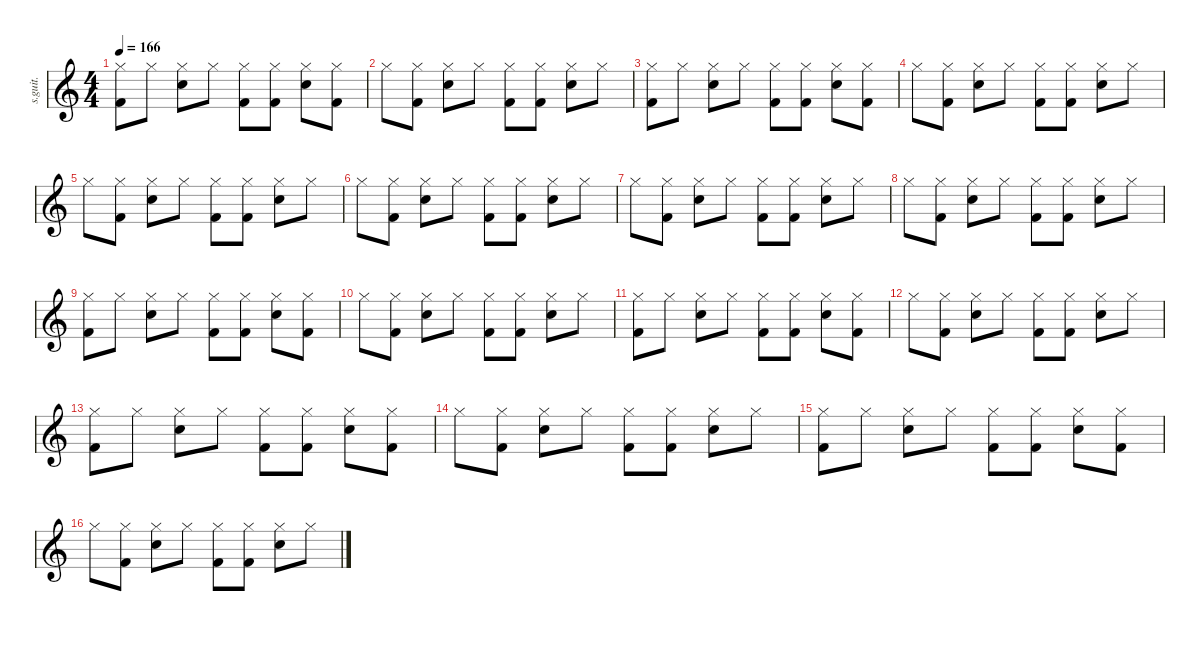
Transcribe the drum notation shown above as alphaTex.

\defaultSystemsLayout 4
\hideDynamics
\bracketExtendMode nobrackets
\track ("Phil Selway" "s.guit.") {instrument percussion}
\staff {score}
\articulation defaults
\ts (4 4)
\tempo 166
\clef g2
\ks c
("Hi-Hat (closed)" "Kick (hit) 2").8{lyrics (0 "") lyrics (1 "") lyrics (2 "") lyrics (3 "") lyrics (4 "") dy f} "Hi-Hat (closed)".8{lyrics (0 "") lyrics (1 "") lyrics (2 "") lyrics (3 "") lyrics (4 "") dy mp} ("Hi-Hat (closed)" "Electric Snare (hit)").8{lyrics (0 "") lyrics (1 "") lyrics (2 "") lyrics (3 "") lyrics (4 "") dy f} "Hi-Hat (closed)".8{lyrics (0 "") lyrics (1 "") lyrics (2 "") lyrics (3 "") lyrics (4 "") dy mp} ("Hi-Hat (closed)" "Kick (hit) 2").8{lyrics (0 "") lyrics (1 "") lyrics (2 "") lyrics (3 "") lyrics (4 "") dy f} ("Hi-Hat (closed)" "Kick (hit) 2").8{lyrics (0 "") lyrics (1 "") lyrics (2 "") lyrics (3 "") lyrics (4 "")} ("Hi-Hat (closed)" "Electric Snare (hit)").8{lyrics (0 "") lyrics (1 "") lyrics (2 "") lyrics (3 "") lyrics (4 "")} ("Hi-Hat (closed)" "Kick (hit) 2").8{lyrics (0 "") lyrics (1 "") lyrics (2 "") lyrics (3 "") lyrics (4 "")} |
"Hi-Hat (closed)".8{lyrics (0 "") lyrics (1 "") lyrics (2 "") lyrics (3 "") lyrics (4 "") dy ff} ("Hi-Hat (closed)" "Kick (hit) 2").8{lyrics (0 "") lyrics (1 "") lyrics (2 "") lyrics (3 "") lyrics (4 "") dy f} ("Hi-Hat (closed)" "Electric Snare (hit)").8{lyrics (0 "") lyrics (1 "") lyrics (2 "") lyrics (3 "") lyrics (4 "")} "Hi-Hat (closed)".8{lyrics (0 "") lyrics (1 "") lyrics (2 "") lyrics (3 "") lyrics (4 "") dy mp} ("Hi-Hat (closed)" "Kick (hit) 2").8{lyrics (0 "") lyrics (1 "") lyrics (2 "") lyrics (3 "") lyrics (4 "") dy f} ("Hi-Hat (closed)" "Kick (hit) 2").8{lyrics (0 "") lyrics (1 "") lyrics (2 "") lyrics (3 "") lyrics (4 "")} ("Hi-Hat (closed)" "Electric Snare (hit)").8{lyrics (0 "") lyrics (1 "") lyrics (2 "") lyrics (3 "") lyrics (4 "")} "Hi-Hat (closed)".8{lyrics (0 "") lyrics (1 "") lyrics (2 "") lyrics (3 "") lyrics (4 "") dy mp} |
("Hi-Hat (closed)" "Kick (hit) 2").8{lyrics (0 "") lyrics (1 "") lyrics (2 "") lyrics (3 "") lyrics (4 "") dy f} "Hi-Hat (closed)".8{lyrics (0 "") lyrics (1 "") lyrics (2 "") lyrics (3 "") lyrics (4 "") dy mp} ("Hi-Hat (closed)" "Electric Snare (hit)").8{lyrics (0 "") lyrics (1 "") lyrics (2 "") lyrics (3 "") lyrics (4 "") dy f} "Hi-Hat (closed)".8{lyrics (0 "") lyrics (1 "") lyrics (2 "") lyrics (3 "") lyrics (4 "") dy mp} ("Hi-Hat (closed)" "Kick (hit) 2").8{lyrics (0 "") lyrics (1 "") lyrics (2 "") lyrics (3 "") lyrics (4 "") dy f} ("Hi-Hat (closed)" "Kick (hit) 2").8{lyrics (0 "") lyrics (1 "") lyrics (2 "") lyrics (3 "") lyrics (4 "")} ("Hi-Hat (closed)" "Electric Snare (hit)").8{lyrics (0 "") lyrics (1 "") lyrics (2 "") lyrics (3 "") lyrics (4 "")} ("Hi-Hat (closed)" "Kick (hit) 2").8{lyrics (0 "") lyrics (1 "") lyrics (2 "") lyrics (3 "") lyrics (4 "")} |
"Hi-Hat (closed)".8{lyrics (0 "") lyrics (1 "") lyrics (2 "") lyrics (3 "") lyrics (4 "") dy ff} ("Hi-Hat (closed)" "Kick (hit) 2").8{lyrics (0 "") lyrics (1 "") lyrics (2 "") lyrics (3 "") lyrics (4 "") dy f} ("Hi-Hat (closed)" "Electric Snare (hit)").8{lyrics (0 "") lyrics (1 "") lyrics (2 "") lyrics (3 "") lyrics (4 "")} "Hi-Hat (closed)".8{lyrics (0 "") lyrics (1 "") lyrics (2 "") lyrics (3 "") lyrics (4 "") dy mp} ("Hi-Hat (closed)" "Kick (hit) 2").8{lyrics (0 "") lyrics (1 "") lyrics (2 "") lyrics (3 "") lyrics (4 "") dy f} ("Hi-Hat (closed)" "Kick (hit) 2").8{lyrics (0 "") lyrics (1 "") lyrics (2 "") lyrics (3 "") lyrics (4 "")} ("Hi-Hat (closed)" "Electric Snare (hit)").8{lyrics (0 "") lyrics (1 "") lyrics (2 "") lyrics (3 "") lyrics (4 "")} "Hi-Hat (closed)".8{lyrics (0 "") lyrics (1 "") lyrics (2 "") lyrics (3 "") lyrics (4 "") dy mp} |
"Hi-Hat (closed)".8{lyrics (0 "") lyrics (1 "") lyrics (2 "") lyrics (3 "") lyrics (4 "") dy ff} ("Hi-Hat (closed)" "Kick (hit) 2").8{lyrics (0 "") lyrics (1 "") lyrics (2 "") lyrics (3 "") lyrics (4 "") dy f} ("Hi-Hat (closed)" "Electric Snare (hit)").8{lyrics (0 "") lyrics (1 "") lyrics (2 "") lyrics (3 "") lyrics (4 "")} "Hi-Hat (closed)".8{lyrics (0 "") lyrics (1 "") lyrics (2 "") lyrics (3 "") lyrics (4 "") dy mp} ("Hi-Hat (closed)" "Kick (hit) 2").8{lyrics (0 "") lyrics (1 "") lyrics (2 "") lyrics (3 "") lyrics (4 "") dy f} ("Hi-Hat (closed)" "Kick (hit) 2").8{lyrics (0 "") lyrics (1 "") lyrics (2 "") lyrics (3 "") lyrics (4 "")} ("Hi-Hat (closed)" "Electric Snare (hit)").8{lyrics (0 "") lyrics (1 "") lyrics (2 "") lyrics (3 "") lyrics (4 "")} "Hi-Hat (closed)".8{lyrics (0 "") lyrics (1 "") lyrics (2 "") lyrics (3 "") lyrics (4 "") dy mp} |
"Hi-Hat (closed)".8{lyrics (0 "") lyrics (1 "") lyrics (2 "") lyrics (3 "") lyrics (4 "") dy ff} ("Hi-Hat (closed)" "Kick (hit) 2").8{lyrics (0 "") lyrics (1 "") lyrics (2 "") lyrics (3 "") lyrics (4 "") dy f} ("Hi-Hat (closed)" "Electric Snare (hit)").8{lyrics (0 "") lyrics (1 "") lyrics (2 "") lyrics (3 "") lyrics (4 "")} "Hi-Hat (closed)".8{lyrics (0 "") lyrics (1 "") lyrics (2 "") lyrics (3 "") lyrics (4 "") dy mp} ("Hi-Hat (closed)" "Kick (hit) 2").8{lyrics (0 "") lyrics (1 "") lyrics (2 "") lyrics (3 "") lyrics (4 "") dy f} ("Hi-Hat (closed)" "Kick (hit) 2").8{lyrics (0 "") lyrics (1 "") lyrics (2 "") lyrics (3 "") lyrics (4 "")} ("Hi-Hat (closed)" "Electric Snare (hit)").8{lyrics (0 "") lyrics (1 "") lyrics (2 "") lyrics (3 "") lyrics (4 "")} "Hi-Hat (closed)".8{lyrics (0 "") lyrics (1 "") lyrics (2 "") lyrics (3 "") lyrics (4 "") dy mp} |
"Hi-Hat (closed)".8{lyrics (0 "") lyrics (1 "") lyrics (2 "") lyrics (3 "") lyrics (4 "") dy ff} ("Hi-Hat (closed)" "Kick (hit) 2").8{lyrics (0 "") lyrics (1 "") lyrics (2 "") lyrics (3 "") lyrics (4 "") dy f} ("Hi-Hat (closed)" "Electric Snare (hit)").8{lyrics (0 "") lyrics (1 "") lyrics (2 "") lyrics (3 "") lyrics (4 "")} "Hi-Hat (closed)".8{lyrics (0 "") lyrics (1 "") lyrics (2 "") lyrics (3 "") lyrics (4 "") dy mp} ("Hi-Hat (closed)" "Kick (hit) 2").8{lyrics (0 "") lyrics (1 "") lyrics (2 "") lyrics (3 "") lyrics (4 "") dy f} ("Hi-Hat (closed)" "Kick (hit) 2").8{lyrics (0 "") lyrics (1 "") lyrics (2 "") lyrics (3 "") lyrics (4 "")} ("Hi-Hat (closed)" "Electric Snare (hit)").8{lyrics (0 "") lyrics (1 "") lyrics (2 "") lyrics (3 "") lyrics (4 "")} "Hi-Hat (closed)".8{lyrics (0 "") lyrics (1 "") lyrics (2 "") lyrics (3 "") lyrics (4 "") dy mp} |
"Hi-Hat (closed)".8{lyrics (0 "") lyrics (1 "") lyrics (2 "") lyrics (3 "") lyrics (4 "") dy ff} ("Hi-Hat (closed)" "Kick (hit) 2").8{lyrics (0 "") lyrics (1 "") lyrics (2 "") lyrics (3 "") lyrics (4 "") dy f} ("Hi-Hat (closed)" "Electric Snare (hit)").8{lyrics (0 "") lyrics (1 "") lyrics (2 "") lyrics (3 "") lyrics (4 "")} "Hi-Hat (closed)".8{lyrics (0 "") lyrics (1 "") lyrics (2 "") lyrics (3 "") lyrics (4 "") dy mp} ("Hi-Hat (closed)" "Kick (hit) 2").8{lyrics (0 "") lyrics (1 "") lyrics (2 "") lyrics (3 "") lyrics (4 "") dy f} ("Hi-Hat (closed)" "Kick (hit) 2").8{lyrics (0 "") lyrics (1 "") lyrics (2 "") lyrics (3 "") lyrics (4 "")} ("Hi-Hat (closed)" "Electric Snare (hit)").8{lyrics (0 "") lyrics (1 "") lyrics (2 "") lyrics (3 "") lyrics (4 "")} "Hi-Hat (closed)".8{lyrics (0 "") lyrics (1 "") lyrics (2 "") lyrics (3 "") lyrics (4 "") dy mp} |
("Hi-Hat (closed)" "Kick (hit) 2").8{lyrics (0 "") lyrics (1 "") lyrics (2 "") lyrics (3 "") lyrics (4 "") dy f} "Hi-Hat (closed)".8{lyrics (0 "") lyrics (1 "") lyrics (2 "") lyrics (3 "") lyrics (4 "") dy mp} ("Hi-Hat (closed)" "Electric Snare (hit)").8{lyrics (0 "") lyrics (1 "") lyrics (2 "") lyrics (3 "") lyrics (4 "") dy f} "Hi-Hat (closed)".8{lyrics (0 "") lyrics (1 "") lyrics (2 "") lyrics (3 "") lyrics (4 "") dy mp} ("Hi-Hat (closed)" "Kick (hit) 2").8{lyrics (0 "") lyrics (1 "") lyrics (2 "") lyrics (3 "") lyrics (4 "") dy f} ("Hi-Hat (closed)" "Kick (hit) 2").8{lyrics (0 "") lyrics (1 "") lyrics (2 "") lyrics (3 "") lyrics (4 "")} ("Hi-Hat (closed)" "Electric Snare (hit)").8{lyrics (0 "") lyrics (1 "") lyrics (2 "") lyrics (3 "") lyrics (4 "")} ("Hi-Hat (closed)" "Kick (hit) 2").8{lyrics (0 "") lyrics (1 "") lyrics (2 "") lyrics (3 "") lyrics (4 "")} |
"Hi-Hat (closed)".8{lyrics (0 "") lyrics (1 "") lyrics (2 "") lyrics (3 "") lyrics (4 "") dy ff} ("Hi-Hat (closed)" "Kick (hit) 2").8{lyrics (0 "") lyrics (1 "") lyrics (2 "") lyrics (3 "") lyrics (4 "") dy f} ("Hi-Hat (closed)" "Electric Snare (hit)").8{lyrics (0 "") lyrics (1 "") lyrics (2 "") lyrics (3 "") lyrics (4 "")} "Hi-Hat (closed)".8{lyrics (0 "") lyrics (1 "") lyrics (2 "") lyrics (3 "") lyrics (4 "") dy mp} ("Hi-Hat (closed)" "Kick (hit) 2").8{lyrics (0 "") lyrics (1 "") lyrics (2 "") lyrics (3 "") lyrics (4 "") dy f} ("Hi-Hat (closed)" "Kick (hit) 2").8{lyrics (0 "") lyrics (1 "") lyrics (2 "") lyrics (3 "") lyrics (4 "")} ("Hi-Hat (closed)" "Electric Snare (hit)").8{lyrics (0 "") lyrics (1 "") lyrics (2 "") lyrics (3 "") lyrics (4 "")} "Hi-Hat (closed)".8{lyrics (0 "") lyrics (1 "") lyrics (2 "") lyrics (3 "") lyrics (4 "") dy mp} |
("Hi-Hat (closed)" "Kick (hit) 2").8{lyrics (0 "") lyrics (1 "") lyrics (2 "") lyrics (3 "") lyrics (4 "") dy f} "Hi-Hat (closed)".8{lyrics (0 "") lyrics (1 "") lyrics (2 "") lyrics (3 "") lyrics (4 "") dy mp} ("Hi-Hat (closed)" "Electric Snare (hit)").8{lyrics (0 "") lyrics (1 "") lyrics (2 "") lyrics (3 "") lyrics (4 "") dy f} "Hi-Hat (closed)".8{lyrics (0 "") lyrics (1 "") lyrics (2 "") lyrics (3 "") lyrics (4 "") dy mp} ("Hi-Hat (closed)" "Kick (hit) 2").8{lyrics (0 "") lyrics (1 "") lyrics (2 "") lyrics (3 "") lyrics (4 "") dy f} ("Hi-Hat (closed)" "Kick (hit) 2").8{lyrics (0 "") lyrics (1 "") lyrics (2 "") lyrics (3 "") lyrics (4 "")} ("Hi-Hat (closed)" "Electric Snare (hit)").8{lyrics (0 "") lyrics (1 "") lyrics (2 "") lyrics (3 "") lyrics (4 "")} ("Hi-Hat (closed)" "Kick (hit) 2").8{lyrics (0 "") lyrics (1 "") lyrics (2 "") lyrics (3 "") lyrics (4 "")} |
"Hi-Hat (closed)".8{lyrics (0 "") lyrics (1 "") lyrics (2 "") lyrics (3 "") lyrics (4 "") dy ff} ("Hi-Hat (closed)" "Kick (hit) 2").8{lyrics (0 "") lyrics (1 "") lyrics (2 "") lyrics (3 "") lyrics (4 "") dy f} ("Hi-Hat (closed)" "Electric Snare (hit)").8{lyrics (0 "") lyrics (1 "") lyrics (2 "") lyrics (3 "") lyrics (4 "")} "Hi-Hat (closed)".8{lyrics (0 "") lyrics (1 "") lyrics (2 "") lyrics (3 "") lyrics (4 "") dy mp} ("Hi-Hat (closed)" "Kick (hit) 2").8{lyrics (0 "") lyrics (1 "") lyrics (2 "") lyrics (3 "") lyrics (4 "") dy f} ("Hi-Hat (closed)" "Kick (hit) 2").8{lyrics (0 "") lyrics (1 "") lyrics (2 "") lyrics (3 "") lyrics (4 "")} ("Hi-Hat (closed)" "Electric Snare (hit)").8{lyrics (0 "") lyrics (1 "") lyrics (2 "") lyrics (3 "") lyrics (4 "")} "Hi-Hat (closed)".8{lyrics (0 "") lyrics (1 "") lyrics (2 "") lyrics (3 "") lyrics (4 "") dy mp} |
("Hi-Hat (closed)" "Kick (hit) 2").8{lyrics (0 "") lyrics (1 "") lyrics (2 "") lyrics (3 "") lyrics (4 "") dy f} "Hi-Hat (closed)".8{lyrics (0 "") lyrics (1 "") lyrics (2 "") lyrics (3 "") lyrics (4 "") dy mp} ("Hi-Hat (closed)" "Electric Snare (hit)").8{lyrics (0 "") lyrics (1 "") lyrics (2 "") lyrics (3 "") lyrics (4 "") dy f} "Hi-Hat (closed)".8{lyrics (0 "") lyrics (1 "") lyrics (2 "") lyrics (3 "") lyrics (4 "") dy mp} ("Hi-Hat (closed)" "Kick (hit) 2").8{lyrics (0 "") lyrics (1 "") lyrics (2 "") lyrics (3 "") lyrics (4 "") dy f} ("Hi-Hat (closed)" "Kick (hit) 2").8{lyrics (0 "") lyrics (1 "") lyrics (2 "") lyrics (3 "") lyrics (4 "")} ("Hi-Hat (closed)" "Electric Snare (hit)").8{lyrics (0 "") lyrics (1 "") lyrics (2 "") lyrics (3 "") lyrics (4 "")} ("Hi-Hat (closed)" "Kick (hit) 2").8{lyrics (0 "") lyrics (1 "") lyrics (2 "") lyrics (3 "") lyrics (4 "")} |
"Hi-Hat (closed)".8{lyrics (0 "") lyrics (1 "") lyrics (2 "") lyrics (3 "") lyrics (4 "") dy ff} ("Hi-Hat (closed)" "Kick (hit) 2").8{lyrics (0 "") lyrics (1 "") lyrics (2 "") lyrics (3 "") lyrics (4 "") dy f} ("Hi-Hat (closed)" "Electric Snare (hit)").8{lyrics (0 "") lyrics (1 "") lyrics (2 "") lyrics (3 "") lyrics (4 "")} "Hi-Hat (closed)".8{lyrics (0 "") lyrics (1 "") lyrics (2 "") lyrics (3 "") lyrics (4 "") dy mp} ("Hi-Hat (closed)" "Kick (hit) 2").8{lyrics (0 "") lyrics (1 "") lyrics (2 "") lyrics (3 "") lyrics (4 "") dy f} ("Hi-Hat (closed)" "Kick (hit) 2").8{lyrics (0 "") lyrics (1 "") lyrics (2 "") lyrics (3 "") lyrics (4 "")} ("Hi-Hat (closed)" "Electric Snare (hit)").8{lyrics (0 "") lyrics (1 "") lyrics (2 "") lyrics (3 "") lyrics (4 "")} "Hi-Hat (closed)".8{lyrics (0 "") lyrics (1 "") lyrics (2 "") lyrics (3 "") lyrics (4 "") dy mp} |
("Hi-Hat (closed)" "Kick (hit) 2").8{lyrics (0 "") lyrics (1 "") lyrics (2 "") lyrics (3 "") lyrics (4 "") dy f} "Hi-Hat (closed)".8{lyrics (0 "") lyrics (1 "") lyrics (2 "") lyrics (3 "") lyrics (4 "") dy mp} ("Hi-Hat (closed)" "Electric Snare (hit)").8{lyrics (0 "") lyrics (1 "") lyrics (2 "") lyrics (3 "") lyrics (4 "") dy f} "Hi-Hat (closed)".8{lyrics (0 "") lyrics (1 "") lyrics (2 "") lyrics (3 "") lyrics (4 "") dy mp} ("Hi-Hat (closed)" "Kick (hit) 2").8{lyrics (0 "") lyrics (1 "") lyrics (2 "") lyrics (3 "") lyrics (4 "") dy f} ("Hi-Hat (closed)" "Kick (hit) 2").8{lyrics (0 "") lyrics (1 "") lyrics (2 "") lyrics (3 "") lyrics (4 "")} ("Hi-Hat (closed)" "Electric Snare (hit)").8{lyrics (0 "") lyrics (1 "") lyrics (2 "") lyrics (3 "") lyrics (4 "")} ("Hi-Hat (closed)" "Kick (hit) 2").8{lyrics (0 "") lyrics (1 "") lyrics (2 "") lyrics (3 "") lyrics (4 "")} |
"Hi-Hat (closed)".8{lyrics (0 "") lyrics (1 "") lyrics (2 "") lyrics (3 "") lyrics (4 "") dy ff} ("Hi-Hat (closed)" "Kick (hit) 2").8{lyrics (0 "") lyrics (1 "") lyrics (2 "") lyrics (3 "") lyrics (4 "") dy f} ("Hi-Hat (closed)" "Electric Snare (hit)").8{lyrics (0 "") lyrics (1 "") lyrics (2 "") lyrics (3 "") lyrics (4 "")} "Hi-Hat (closed)".8{lyrics (0 "") lyrics (1 "") lyrics (2 "") lyrics (3 "") lyrics (4 "") dy mp} ("Hi-Hat (closed)" "Kick (hit) 2").8{lyrics (0 "") lyrics (1 "") lyrics (2 "") lyrics (3 "") lyrics (4 "") dy f} ("Hi-Hat (closed)" "Kick (hit) 2").8{lyrics (0 "") lyrics (1 "") lyrics (2 "") lyrics (3 "") lyrics (4 "")} ("Hi-Hat (closed)" "Electric Snare (hit)").8{lyrics (0 "") lyrics (1 "") lyrics (2 "") lyrics (3 "") lyrics (4 "")} "Hi-Hat (closed)".8{lyrics (0 "") lyrics (1 "") lyrics (2 "") lyrics (3 "") lyrics (4 "") dy mp}
